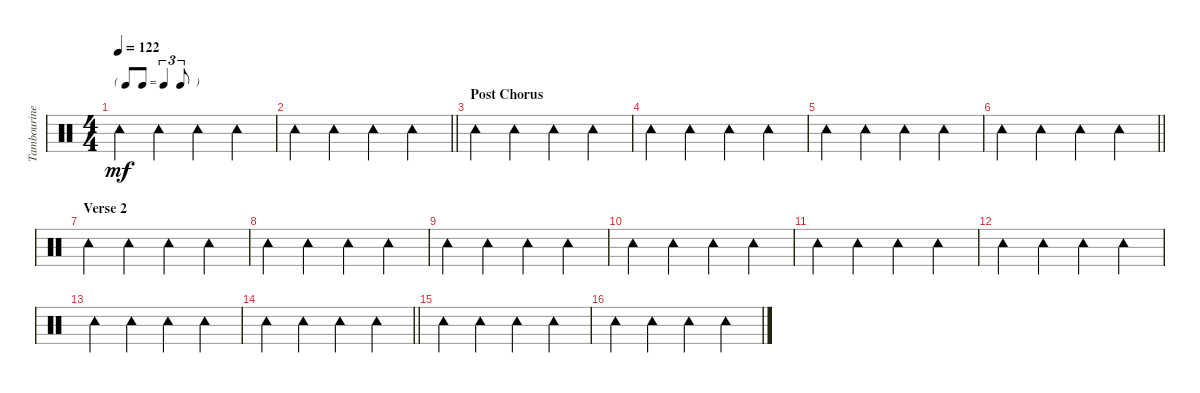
\track ("Tambourine" "Tambourine") {instrument percussion}
\staff {score}
\articulation defaults
\ts (4 4)
\tf triplet8th
\tempo 122
\clef neutral
\ks c "Tambourine (hit)".4{dy mf} "Tambourine (hit)".4 "Tambourine (hit)".4 "Tambourine (hit)".4
|
\barLineRight lightlight "Tambourine (hit)".4 "Tambourine (hit)".4 "Tambourine (hit)".4 "Tambourine (hit)".4
|
\section ("" "Post Chorus")
"Tambourine (hit)".4 "Tambourine (hit)".4 "Tambourine (hit)".4 "Tambourine (hit)".4 |
"Tambourine (hit)".4 "Tambourine (hit)".4 "Tambourine (hit)".4 "Tambourine (hit)".4 |
"Tambourine (hit)".4 "Tambourine (hit)".4 "Tambourine (hit)".4 "Tambourine (hit)".4 |
\barLineRight lightlight "Tambourine (hit)".4 "Tambourine (hit)".4 "Tambourine (hit)".4 "Tambourine (hit)".4
|
\section ("" "Verse 2")
"Tambourine (hit)".4 "Tambourine (hit)".4 "Tambourine (hit)".4 "Tambourine (hit)".4 |
"Tambourine (hit)".4 "Tambourine (hit)".4 "Tambourine (hit)".4 "Tambourine (hit)".4 |
"Tambourine (hit)".4 "Tambourine (hit)".4 "Tambourine (hit)".4 "Tambourine (hit)".4 |
"Tambourine (hit)".4 "Tambourine (hit)".4 "Tambourine (hit)".4 "Tambourine (hit)".4 |
"Tambourine (hit)".4 "Tambourine (hit)".4 "Tambourine (hit)".4 "Tambourine (hit)".4 |
"Tambourine (hit)".4 "Tambourine (hit)".4 "Tambourine (hit)".4 "Tambourine (hit)".4 |
"Tambourine (hit)".4 "Tambourine (hit)".4 "Tambourine (hit)".4 "Tambourine (hit)".4 |
\barLineRight lightlight "Tambourine (hit)".4 "Tambourine (hit)".4 "Tambourine (hit)".4 "Tambourine (hit)".4
|
"Tambourine (hit)".4 "Tambourine (hit)".4 "Tambourine (hit)".4 "Tambourine (hit)".4 |
"Tambourine (hit)".4 "Tambourine (hit)".4 "Tambourine (hit)".4 "Tambourine (hit)".4
